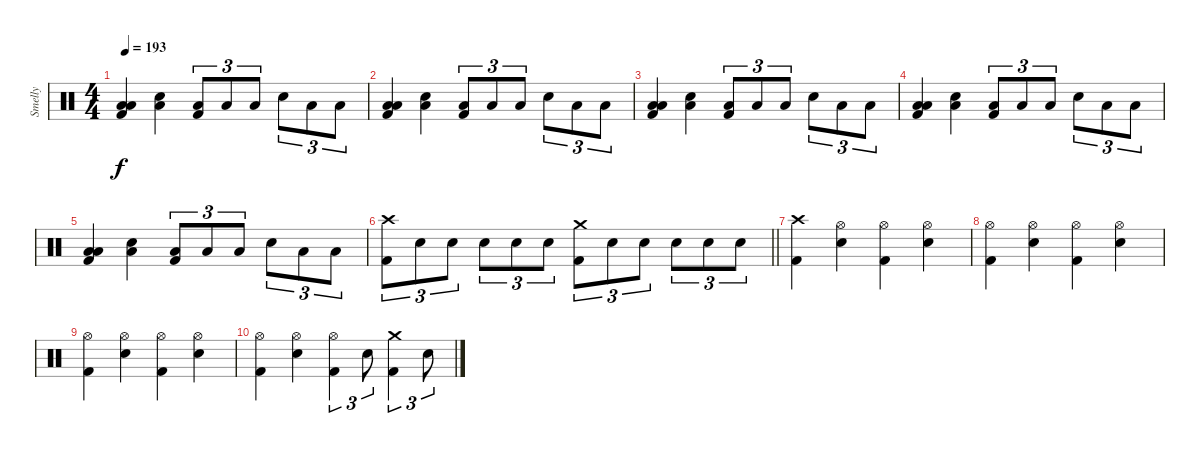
\track ("Smelly" "Smelly") {instrument percussion}
\staff {score}
\articulation defaults
\ts (4 4)
\tempo 193
\clef neutral
\ks c
("Low Tom (hit)" "Low Floor Tom (hit)" "Kick (hit) 2").4{dy f} ("Electric Snare (hit)" "Low Floor Tom (hit)").4 ("Low Floor Tom (hit)" "Kick (hit) 2").8{tu (3 2)} "Low Floor Tom (hit)".8{tu (3 2)} "Low Floor Tom (hit)".8{tu (3 2)} "Electric Snare (hit)".8{tu (3 2)} "Low Tom (hit)".8{tu (3 2)} "Low Floor Tom (hit)".8{tu (3 2)} |
("Low Tom (hit)" "Low Floor Tom (hit)" "Kick (hit) 2").4 ("Electric Snare (hit)" "Low Floor Tom (hit)").4 ("Low Floor Tom (hit)" "Kick (hit) 2").8{tu (3 2)} "Low Floor Tom (hit)".8{tu (3 2)} "Low Floor Tom (hit)".8{tu (3 2)} "Electric Snare (hit)".8{tu (3 2)} "Low Tom (hit)".8{tu (3 2)} "Low Floor Tom (hit)".8{tu (3 2)} |
("Low Tom (hit)" "Low Floor Tom (hit)" "Kick (hit) 2").4 ("Electric Snare (hit)" "Low Floor Tom (hit)").4 ("Low Floor Tom (hit)" "Kick (hit) 2").8{tu (3 2)} "Low Floor Tom (hit)".8{tu (3 2)} "Low Floor Tom (hit)".8{tu (3 2)} "Electric Snare (hit)".8{tu (3 2)} "Low Tom (hit)".8{tu (3 2)} "Low Floor Tom (hit)".8{tu (3 2)} |
("Low Tom (hit)" "Low Floor Tom (hit)" "Kick (hit) 2").4 ("Electric Snare (hit)" "Low Floor Tom (hit)").4 ("Low Floor Tom (hit)" "Kick (hit) 2").8{tu (3 2)} "Low Floor Tom (hit)".8{tu (3 2)} "Low Floor Tom (hit)".8{tu (3 2)} "Electric Snare (hit)".8{tu (3 2)} "Low Tom (hit)".8{tu (3 2)} "Low Floor Tom (hit)".8{tu (3 2)} |
("Low Tom (hit)" "Low Floor Tom (hit)" "Kick (hit) 2").4 ("Electric Snare (hit)" "Low Floor Tom (hit)").4 ("Low Floor Tom (hit)" "Kick (hit) 2").8{tu (3 2)} "Low Floor Tom (hit)".8{tu (3 2)} "Low Floor Tom (hit)".8{tu (3 2)} "Electric Snare (hit)".8{tu (3 2)} "Low Tom (hit)".8{tu (3 2)} "Low Floor Tom (hit)".8{tu (3 2)} |
\barLineRight lightlight
("Crash high (hit)" "Kick (hit) 2").8{tu (3 2)} "Electric Snare (hit)".8{tu (3 2)} "Electric Snare (hit)".8{tu (3 2)} "Electric Snare (hit)".8{tu (3 2)} "Electric Snare (hit)".8{tu (3 2)} "Electric Snare (hit)".8{tu (3 2)} ("Crash medium (hit)" "Kick (hit) 2").8{tu (3 2)} "Electric Snare (hit)".8{tu (3 2)} "Electric Snare (hit)".8{tu (3 2)} "Electric Snare (hit)".8{tu (3 2)} "Electric Snare (hit)".8{tu (3 2)} "Electric Snare (hit)".8{tu (3 2)} |
\section ("" "")
("Crash high (hit)" "Kick (hit) 2").4{volume 1} ("Hi-Hat (open)" "Electric Snare (hit)").4 ("Hi-Hat (open)" "Kick (hit) 2").4 ("Hi-Hat (open)" "Electric Snare (hit)").4 |
("Hi-Hat (open)" "Kick (hit) 2").4 ("Hi-Hat (open)" "Electric Snare (hit)").4 ("Hi-Hat (open)" "Kick (hit) 2").4 ("Hi-Hat (open)" "Electric Snare (hit)").4 |
("Hi-Hat (open)" "Kick (hit) 2").4 ("Hi-Hat (open)" "Electric Snare (hit)").4 ("Hi-Hat (open)" "Kick (hit) 2").4 ("Hi-Hat (open)" "Electric Snare (hit)").4 |
("Hi-Hat (open)" "Kick (hit) 2").4 ("Hi-Hat (open)" "Electric Snare (hit)").4 ("Hi-Hat (open)" "Kick (hit) 2").4{tu (3 2)} "Electric Snare (hit)".8{tu (3 2)} ("Crash medium (hit)" "Kick (hit) 2").4{tu (3 2)} "Electric Snare (hit)".8{tu (3 2)}
